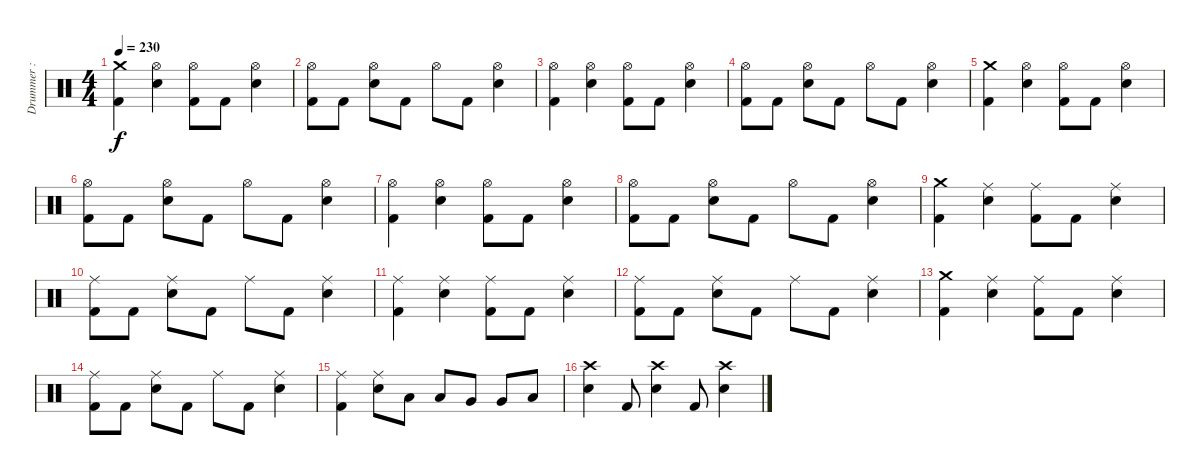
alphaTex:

\track ("Drummer : Tainaka Ritsu - Swan" "Drummer : ") {instrument percussion}
\staff {score}
\articulation defaults
\ts (4 4)
\tempo 230
\clef neutral
\ks c
("Crash medium (hit)" "Kick (hit) 2").4{dy f} ("Hi-Hat (open)" "Electric Snare (hit)").4 ("Hi-Hat (open)" "Kick (hit) 2").8 "Kick (hit) 2".8 ("Hi-Hat (open)" "Electric Snare (hit)").4 |
("Hi-Hat (open)" "Kick (hit) 2").8 "Kick (hit) 2".8 ("Hi-Hat (open)" "Electric Snare (hit)").8 "Kick (hit) 2".8 "Hi-Hat (open)".8 "Kick (hit) 2".8 ("Hi-Hat (open)" "Electric Snare (hit)").4 |
("Hi-Hat (open)" "Kick (hit) 2").4 ("Hi-Hat (open)" "Electric Snare (hit)").4 ("Hi-Hat (open)" "Kick (hit) 2").8 "Kick (hit) 2".8 ("Hi-Hat (open)" "Electric Snare (hit)").4 |
("Hi-Hat (open)" "Kick (hit) 2").8 "Kick (hit) 2".8 ("Hi-Hat (open)" "Electric Snare (hit)").8 "Kick (hit) 2".8 "Hi-Hat (open)".8 "Kick (hit) 2".8 ("Hi-Hat (open)" "Electric Snare (hit)").4 |
("Crash medium (hit)" "Kick (hit) 2").4 ("Hi-Hat (open)" "Electric Snare (hit)").4 ("Hi-Hat (open)" "Kick (hit) 2").8 "Kick (hit) 2".8 ("Hi-Hat (open)" "Electric Snare (hit)").4 |
("Hi-Hat (open)" "Kick (hit) 2").8 "Kick (hit) 2".8 ("Hi-Hat (open)" "Electric Snare (hit)").8 "Kick (hit) 2".8 "Hi-Hat (open)".8 "Kick (hit) 2".8 ("Hi-Hat (open)" "Electric Snare (hit)").4 |
("Hi-Hat (open)" "Kick (hit) 2").4 ("Hi-Hat (open)" "Electric Snare (hit)").4 ("Hi-Hat (open)" "Kick (hit) 2").8 "Kick (hit) 2".8 ("Hi-Hat (open)" "Electric Snare (hit)").4 |
("Hi-Hat (open)" "Kick (hit) 2").8 "Kick (hit) 2".8 ("Hi-Hat (open)" "Electric Snare (hit)").8 "Kick (hit) 2".8 "Hi-Hat (open)".8 "Kick (hit) 2".8 ("Hi-Hat (open)" "Electric Snare (hit)").4 |
("Crash medium (hit)" "Kick (hit) 2").4 ("Ride (middle)" "Electric Snare (hit)").4 ("Ride (middle)" "Kick (hit) 2").8 "Kick (hit) 2".8 ("Ride (middle)" "Electric Snare (hit)").4 |
("Ride (middle)" "Kick (hit) 2").8 "Kick (hit) 2".8 ("Ride (middle)" "Electric Snare (hit)").8 "Kick (hit) 2".8 "Ride (middle)".8 "Kick (hit) 2".8 ("Ride (middle)" "Electric Snare (hit)").4 |
("Ride (middle)" "Kick (hit) 2").4 ("Ride (middle)" "Electric Snare (hit)").4 ("Ride (middle)" "Kick (hit) 2").8 "Kick (hit) 2".8 ("Ride (middle)" "Electric Snare (hit)").4 |
("Ride (middle)" "Kick (hit) 2").8 "Kick (hit) 2".8 ("Ride (middle)" "Electric Snare (hit)").8 "Kick (hit) 2".8 "Ride (middle)".8 "Kick (hit) 2".8 ("Ride (middle)" "Electric Snare (hit)").4 |
("Crash medium (hit)" "Kick (hit) 2").4 ("Ride (middle)" "Electric Snare (hit)").4 ("Ride (middle)" "Kick (hit) 2").8 "Kick (hit) 2".8 ("Ride (middle)" "Electric Snare (hit)").4 |
("Ride (middle)" "Kick (hit) 2").8 "Kick (hit) 2".8 ("Ride (middle)" "Electric Snare (hit)").8 "Kick (hit) 2".8 "Ride (middle)".8 "Kick (hit) 2".8 ("Ride (middle)" "Electric Snare (hit)").4 |
("Ride (middle)" "Kick (hit) 2").4 ("Ride (middle)" "Electric Snare (hit)").8 "Low Tom (hit)".8 "Low Tom (hit)".8 "Very Low Tom (hit)".8 "Very Low Tom (hit)".8 "Low Floor Tom (hit)".8 |
("Crash high (hit)" "Electric Snare (hit)").4 "Kick (hit) 2".8 ("Crash high (hit)" "Electric Snare (hit)").4 "Kick (hit) 2".8 ("Crash high (hit)" "Electric Snare (hit)").4
